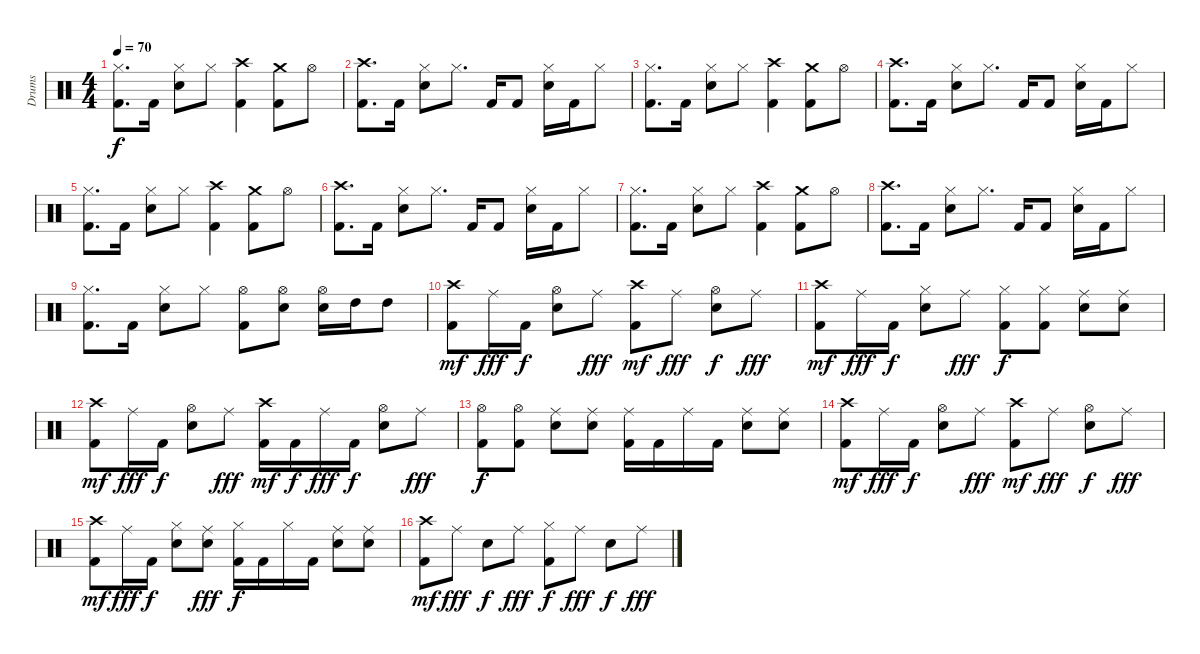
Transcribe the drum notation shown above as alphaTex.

\track ("Drums" "Drums") {instrument percussion}
\staff {score}
\articulation defaults
\ts (4 4)
\tempo 70
\clef neutral
\ks c
("Kick (hit) 2" "Hi-Hat (closed)").8{d dy f} "Kick (hit) 2".16 ("Snare (hit) 2" "Hi-Hat (closed)").8 "Hi-Hat (closed)".8 ("Kick (hit) 2" "Crash high (hit)").4 ("Kick (hit) 2" "Crash medium (hit)").8 "Hi-Hat (open)".8 |
("Kick (hit) 2" "Crash high (hit)").8{d} "Kick (hit) 2".16 ("Snare (hit) 2" "Hi-Hat (closed)").8 "Hi-Hat (closed)".8{d} "Kick (hit) 2".16 "Kick (hit) 2".8 ("Snare (hit) 2" "Hi-Hat (closed)").16 "Kick (hit) 2".16 "Hi-Hat (closed)".8 |
("Kick (hit) 2" "Hi-Hat (closed)").8{d} "Kick (hit) 2".16 ("Snare (hit) 2" "Hi-Hat (closed)").8 "Hi-Hat (closed)".8 ("Kick (hit) 2" "Crash high (hit)").4 ("Kick (hit) 2" "Crash medium (hit)").8 "Hi-Hat (open)".8 |
("Kick (hit) 2" "Crash high (hit)").8{d} "Kick (hit) 2".16 ("Snare (hit) 2" "Hi-Hat (closed)").8 "Hi-Hat (closed)".8{d} "Kick (hit) 2".16 "Kick (hit) 2".8 ("Snare (hit) 2" "Hi-Hat (closed)").16 "Kick (hit) 2".16 "Hi-Hat (closed)".8 |
("Kick (hit) 2" "Hi-Hat (closed)").8{d} "Kick (hit) 2".16 ("Snare (hit) 2" "Hi-Hat (closed)").8 "Hi-Hat (closed)".8 ("Kick (hit) 2" "Crash high (hit)").4 ("Kick (hit) 2" "Crash medium (hit)").8 "Hi-Hat (open)".8 |
("Kick (hit) 2" "Crash high (hit)").8{d} "Kick (hit) 2".16 ("Snare (hit) 2" "Hi-Hat (closed)").8 "Hi-Hat (closed)".8{d} "Kick (hit) 2".16 "Kick (hit) 2".8 ("Snare (hit) 2" "Hi-Hat (closed)").16 "Kick (hit) 2".16 "Hi-Hat (closed)".8 |
("Kick (hit) 2" "Hi-Hat (closed)").8{d} "Kick (hit) 2".16 ("Snare (hit) 2" "Hi-Hat (closed)").8 "Hi-Hat (closed)".8 ("Kick (hit) 2" "Crash high (hit)").4 ("Kick (hit) 2" "Crash medium (hit)").8 "Hi-Hat (open)".8 |
("Kick (hit) 2" "Crash high (hit)").8{d} "Kick (hit) 2".16 ("Snare (hit) 2" "Hi-Hat (closed)").8 "Hi-Hat (closed)".8{d} "Kick (hit) 2".16 "Kick (hit) 2".8 ("Snare (hit) 2" "Hi-Hat (closed)").16 "Kick (hit) 2".16 "Hi-Hat (closed)".8 |
("Kick (hit) 2" "Hi-Hat (closed)").8{d} "Kick (hit) 2".16 ("Snare (hit) 2" "Hi-Hat (closed)").8 "Hi-Hat (closed)".8 ("Kick (hit) 2" "Hi-Hat (open)").8 ("Snare (hit) 2" "Hi-Hat (open)").8 ("Snare (hit) 2" "Hi-Hat (open)").16 "High Tom (hit)".16 "High Tom (hit)".8 |
("Kick (hit) 2" "Crash high (hit)").8{dy mf} "Ride (middle)".16{dy fff} "Kick (hit) 2".16{dy f} ("Snare (hit) 2" "Hi-Hat (open)").8 "Ride (middle)".8{dy fff} ("Kick (hit) 2" "Crash high (hit)").8{dy mf} "Ride (middle)".8{dy fff} ("Snare (hit) 2" "Hi-Hat (open)").8{dy f} "Ride (middle)".8{dy fff} |
("Kick (hit) 2" "Crash high (hit)").8{dy mf} "Ride (middle)".16{dy fff} "Kick (hit) 2".16{dy f} ("Snare (hit) 2" "Hi-Hat (closed)").8 "Ride (middle)".8{dy fff} ("Kick (hit) 2" "Hi-Hat (closed)").8{dy f} ("Kick (hit) 2" "Hi-Hat (closed)").8 ("Snare (hit) 2" "Ride (middle)").8 ("Snare (hit) 2" "Ride (middle)").8 |
("Kick (hit) 2" "Crash high (hit)").8{dy mf} "Ride (middle)".16{dy fff} "Kick (hit) 2".16{dy f} ("Snare (hit) 2" "Hi-Hat (open)").8 "Ride (middle)".8{dy fff} ("Kick (hit) 2" "Crash high (hit)").16{dy mf} "Kick (hit) 2".16{dy f} "Ride (middle)".16{dy fff} "Kick (hit) 2".16{dy f} ("Snare (hit) 2" "Hi-Hat (open)").8 "Ride (middle)".8{dy fff} |
("Kick (hit) 2" "Hi-Hat (open)").8{dy f} ("Kick (hit) 2" "Hi-Hat (open)").8 ("Snare (hit) 2" "Ride (middle)").8 ("Snare (hit) 2" "Ride (middle)").8 ("Kick (hit) 2" "Ride (middle)").16 "Kick (hit) 2".16 "Ride (middle)".16 "Kick (hit) 2".16 ("Snare (hit) 2" "Ride (middle)").8 ("Snare (hit) 2" "Ride (middle)").8 |
("Kick (hit) 2" "Crash high (hit)").8{dy mf} "Ride (middle)".16{dy fff} "Kick (hit) 2".16{dy f} ("Snare (hit) 2" "Hi-Hat (open)").8 "Ride (middle)".8{dy fff} ("Kick (hit) 2" "Crash high (hit)").8{dy mf} "Ride (middle)".8{dy fff} ("Snare (hit) 2" "Hi-Hat (open)").8{dy f} "Ride (middle)".8{dy fff} |
("Kick (hit) 2" "Crash high (hit)").8{dy mf} "Ride (middle)".16{dy fff} "Kick (hit) 2".16{dy f} ("Snare (hit) 2" "Hi-Hat (closed)").8 ("Snare (hit) 2" "Ride (middle)").8{dy fff} ("Kick (hit) 2" "Hi-Hat (closed)").16{dy f} "Kick (hit) 2".16 "Hi-Hat (closed)".16 "Kick (hit) 2".16 ("Snare (hit) 2" "Ride (middle)").8 ("Snare (hit) 2" "Ride (middle)").8 |
("Kick (hit) 2" "Crash high (hit)").8{dy mf} "Ride (middle)".8{dy fff} "Snare (hit) 2".8{dy f} "Ride (middle)".8{dy fff} ("Kick (hit) 2" "Hi-Hat (closed)").8{dy f} "Ride (middle)".8{dy fff} "Snare (hit) 2".8{dy f} "Ride (middle)".8{dy fff}
